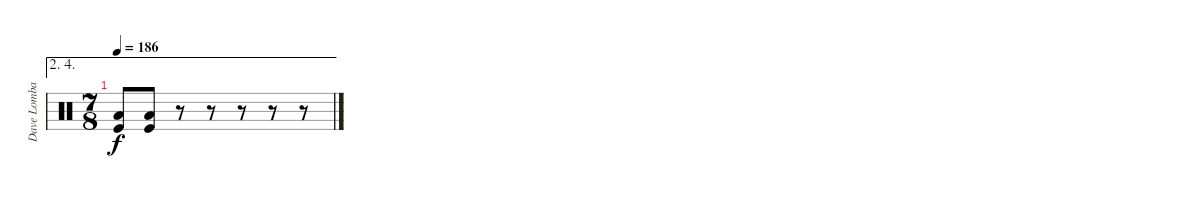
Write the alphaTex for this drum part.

\track ("Dave Lombardo" "Dave Lomba") {instrument percussion}
\staff {score}
\articulation defaults
\ae (2 4)
\ts (7 8)
\tempo 186
\clef neutral
\ks c
("Low Tom (hit)" "Kick (hit)").8{dy f} ("Low Tom (hit)" "Kick (hit)").8 r.8 r.8 r.8 r.8 r.8
